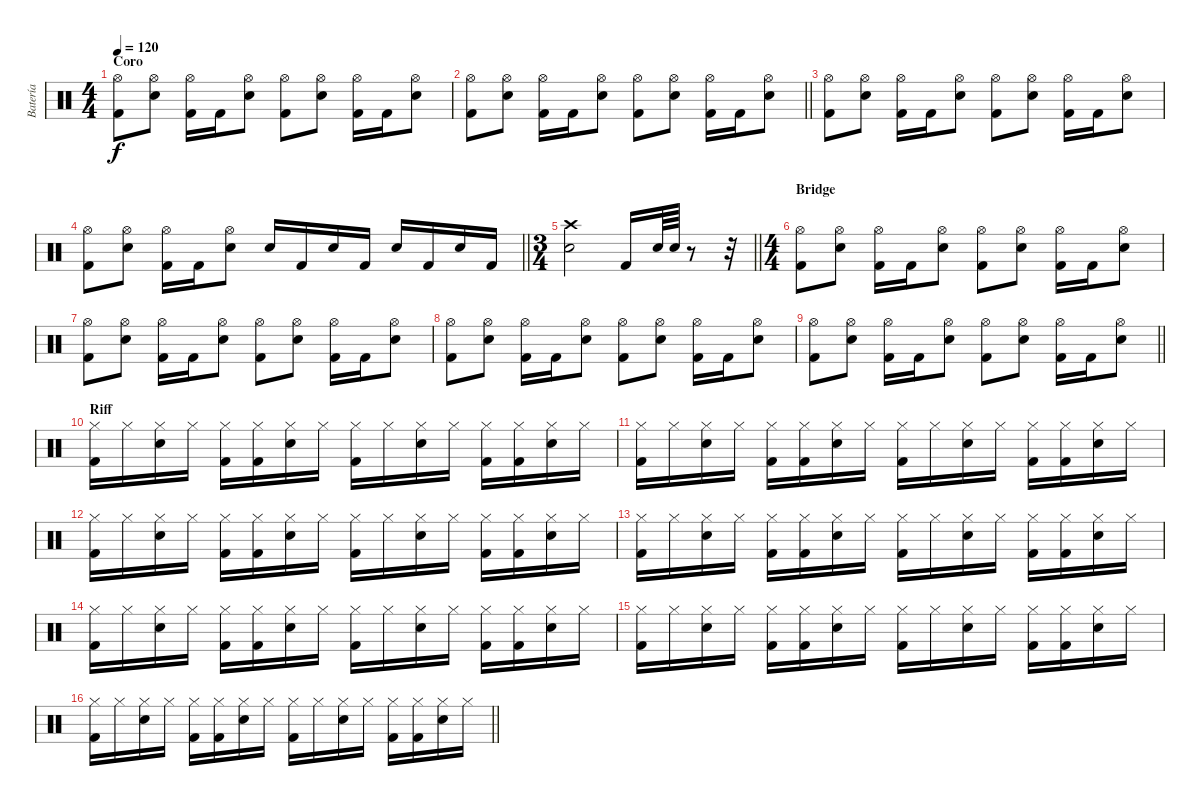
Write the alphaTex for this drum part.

\track ("Batería" "Batería") {instrument percussion}
\staff {score}
\articulation defaults
\ts (4 4)
\section ("" "Coro")
\tempo 120
\clef neutral
\ks c
("Hi-Hat (open)" "Kick (hit) 2").8{dy f} ("Hi-Hat (open)" "Snare (hit) 2").8 ("Hi-Hat (open)" "Kick (hit) 2").16 "Kick (hit) 2".16 ("Hi-Hat (open)" "Snare (hit) 2").8 ("Hi-Hat (open)" "Kick (hit) 2").8 ("Hi-Hat (open)" "Snare (hit) 2").8 ("Hi-Hat (open)" "Kick (hit) 2").16 "Kick (hit) 2".16 ("Hi-Hat (open)" "Snare (hit) 2").8 |
\barLineRight lightlight
("Hi-Hat (open)" "Kick (hit) 2").8 ("Hi-Hat (open)" "Snare (hit) 2").8 ("Hi-Hat (open)" "Kick (hit) 2").16 "Kick (hit) 2".16 ("Hi-Hat (open)" "Snare (hit) 2").8 ("Hi-Hat (open)" "Kick (hit) 2").8 ("Hi-Hat (open)" "Snare (hit) 2").8 ("Hi-Hat (open)" "Kick (hit) 2").16 "Kick (hit) 2".16 ("Hi-Hat (open)" "Snare (hit) 2").8 |
("Hi-Hat (open)" "Kick (hit) 2").8 ("Hi-Hat (open)" "Snare (hit) 2").8 ("Hi-Hat (open)" "Kick (hit) 2").16 "Kick (hit) 2".16 ("Hi-Hat (open)" "Snare (hit) 2").8 ("Hi-Hat (open)" "Kick (hit) 2").8 ("Hi-Hat (open)" "Snare (hit) 2").8 ("Hi-Hat (open)" "Kick (hit) 2").16 "Kick (hit) 2".16 ("Hi-Hat (open)" "Snare (hit) 2").8 |
\barLineRight lightlight
("Hi-Hat (open)" "Kick (hit) 2").8 ("Hi-Hat (open)" "Snare (hit) 2").8 ("Hi-Hat (open)" "Kick (hit) 2").16 "Kick (hit) 2".16 ("Hi-Hat (open)" "Snare (hit) 2").8 "Snare (hit) 2".16 "Kick (hit) 2".16 "Snare (hit) 2".16 "Kick (hit) 2".16 "Snare (hit) 2".16 "Kick (hit) 2".16 "Snare (hit) 2".16 "Kick (hit) 2".16 |
\ts (3 4)
\barLineRight lightlight
("Snare (hit) 2" "Crash high (hit)").2 "Kick (hit) 2".16 "Snare (hit) 2".64 "Snare (hit) 2".64 r.8 r.32 |
\ts (4 4)
\section ("" "Bridge")
("Hi-Hat (open)" "Kick (hit) 2").8 ("Hi-Hat (open)" "Snare (hit) 2").8 ("Hi-Hat (open)" "Kick (hit) 2").16 "Kick (hit) 2".16 ("Hi-Hat (open)" "Snare (hit) 2").8 ("Hi-Hat (open)" "Kick (hit) 2").8 ("Hi-Hat (open)" "Snare (hit) 2").8 ("Hi-Hat (open)" "Kick (hit) 2").16 "Kick (hit) 2".16 ("Hi-Hat (open)" "Snare (hit) 2").8 |
("Hi-Hat (open)" "Kick (hit) 2").8 ("Hi-Hat (open)" "Snare (hit) 2").8 ("Hi-Hat (open)" "Kick (hit) 2").16 "Kick (hit) 2".16 ("Hi-Hat (open)" "Snare (hit) 2").8 ("Hi-Hat (open)" "Kick (hit) 2").8 ("Hi-Hat (open)" "Snare (hit) 2").8 ("Hi-Hat (open)" "Kick (hit) 2").16 "Kick (hit) 2".16 ("Hi-Hat (open)" "Snare (hit) 2").8 |
("Hi-Hat (open)" "Kick (hit) 2").8 ("Hi-Hat (open)" "Snare (hit) 2").8 ("Hi-Hat (open)" "Kick (hit) 2").16 "Kick (hit) 2".16 ("Hi-Hat (open)" "Snare (hit) 2").8 ("Hi-Hat (open)" "Kick (hit) 2").8 ("Hi-Hat (open)" "Snare (hit) 2").8 ("Hi-Hat (open)" "Kick (hit) 2").16 "Kick (hit) 2".16 ("Hi-Hat (open)" "Snare (hit) 2").8 |
\barLineRight lightlight
("Hi-Hat (open)" "Kick (hit) 2").8 ("Hi-Hat (open)" "Snare (hit) 2").8 ("Hi-Hat (open)" "Kick (hit) 2").16 "Kick (hit) 2".16 ("Hi-Hat (open)" "Snare (hit) 2").8 ("Hi-Hat (open)" "Kick (hit) 2").8 ("Hi-Hat (open)" "Snare (hit) 2").8 ("Hi-Hat (open)" "Kick (hit) 2").16 "Kick (hit) 2".16 ("Hi-Hat (open)" "Snare (hit) 2").8 |
\section ("" "Riff")
("Hi-Hat (closed)" "Kick (hit) 2").16 "Hi-Hat (closed)".16 ("Hi-Hat (closed)" "Snare (hit) 2").16 "Hi-Hat (closed)".16 ("Hi-Hat (closed)" "Kick (hit) 2").16 ("Hi-Hat (closed)" "Kick (hit) 2").16 ("Hi-Hat (closed)" "Snare (hit) 2").16 "Hi-Hat (closed)".16 ("Hi-Hat (closed)" "Kick (hit) 2").16 "Hi-Hat (closed)".16 ("Hi-Hat (closed)" "Snare (hit) 2").16 "Hi-Hat (closed)".16 ("Hi-Hat (closed)" "Kick (hit) 2").16 ("Hi-Hat (closed)" "Kick (hit) 2").16 ("Hi-Hat (closed)" "Snare (hit) 2").16 "Hi-Hat (closed)".16 |
("Hi-Hat (closed)" "Kick (hit) 2").16 "Hi-Hat (closed)".16 ("Hi-Hat (closed)" "Snare (hit) 2").16 "Hi-Hat (closed)".16 ("Hi-Hat (closed)" "Kick (hit) 2").16 ("Hi-Hat (closed)" "Kick (hit) 2").16 ("Hi-Hat (closed)" "Snare (hit) 2").16 "Hi-Hat (closed)".16 ("Hi-Hat (closed)" "Kick (hit) 2").16 "Hi-Hat (closed)".16 ("Hi-Hat (closed)" "Snare (hit) 2").16 "Hi-Hat (closed)".16 ("Hi-Hat (closed)" "Kick (hit) 2").16 ("Hi-Hat (closed)" "Kick (hit) 2").16 ("Hi-Hat (closed)" "Snare (hit) 2").16 "Hi-Hat (closed)".16 |
("Hi-Hat (closed)" "Kick (hit) 2").16 "Hi-Hat (closed)".16 ("Hi-Hat (closed)" "Snare (hit) 2").16 "Hi-Hat (closed)".16 ("Hi-Hat (closed)" "Kick (hit) 2").16 ("Hi-Hat (closed)" "Kick (hit) 2").16 ("Hi-Hat (closed)" "Snare (hit) 2").16 "Hi-Hat (closed)".16 ("Hi-Hat (closed)" "Kick (hit) 2").16 "Hi-Hat (closed)".16 ("Hi-Hat (closed)" "Snare (hit) 2").16 "Hi-Hat (closed)".16 ("Hi-Hat (closed)" "Kick (hit) 2").16 ("Hi-Hat (closed)" "Kick (hit) 2").16 ("Hi-Hat (closed)" "Snare (hit) 2").16 "Hi-Hat (closed)".16 |
("Hi-Hat (closed)" "Kick (hit) 2").16 "Hi-Hat (closed)".16 ("Hi-Hat (closed)" "Snare (hit) 2").16 "Hi-Hat (closed)".16 ("Hi-Hat (closed)" "Kick (hit) 2").16 ("Hi-Hat (closed)" "Kick (hit) 2").16 ("Hi-Hat (closed)" "Snare (hit) 2").16 "Hi-Hat (closed)".16 ("Hi-Hat (closed)" "Kick (hit) 2").16 "Hi-Hat (closed)".16 ("Hi-Hat (closed)" "Snare (hit) 2").16 "Hi-Hat (closed)".16 ("Hi-Hat (closed)" "Kick (hit) 2").16 ("Hi-Hat (closed)" "Kick (hit) 2").16 ("Hi-Hat (closed)" "Snare (hit) 2").16 "Hi-Hat (closed)".16 |
("Hi-Hat (closed)" "Kick (hit) 2").16 "Hi-Hat (closed)".16 ("Hi-Hat (closed)" "Snare (hit) 2").16 "Hi-Hat (closed)".16 ("Hi-Hat (closed)" "Kick (hit) 2").16 ("Hi-Hat (closed)" "Kick (hit) 2").16 ("Hi-Hat (closed)" "Snare (hit) 2").16 "Hi-Hat (closed)".16 ("Hi-Hat (closed)" "Kick (hit) 2").16 "Hi-Hat (closed)".16 ("Hi-Hat (closed)" "Snare (hit) 2").16 "Hi-Hat (closed)".16 ("Hi-Hat (closed)" "Kick (hit) 2").16 ("Hi-Hat (closed)" "Kick (hit) 2").16 ("Hi-Hat (closed)" "Snare (hit) 2").16 "Hi-Hat (closed)".16 |
("Hi-Hat (closed)" "Kick (hit) 2").16 "Hi-Hat (closed)".16 ("Hi-Hat (closed)" "Snare (hit) 2").16 "Hi-Hat (closed)".16 ("Hi-Hat (closed)" "Kick (hit) 2").16 ("Hi-Hat (closed)" "Kick (hit) 2").16 ("Hi-Hat (closed)" "Snare (hit) 2").16 "Hi-Hat (closed)".16 ("Hi-Hat (closed)" "Kick (hit) 2").16 "Hi-Hat (closed)".16 ("Hi-Hat (closed)" "Snare (hit) 2").16 "Hi-Hat (closed)".16 ("Hi-Hat (closed)" "Kick (hit) 2").16 ("Hi-Hat (closed)" "Kick (hit) 2").16 ("Hi-Hat (closed)" "Snare (hit) 2").16 "Hi-Hat (closed)".16 |
\barLineRight lightlight
("Hi-Hat (closed)" "Kick (hit) 2").16 "Hi-Hat (closed)".16 ("Hi-Hat (closed)" "Snare (hit) 2").16 "Hi-Hat (closed)".16 ("Hi-Hat (closed)" "Kick (hit) 2").16 ("Hi-Hat (closed)" "Kick (hit) 2").16 ("Hi-Hat (closed)" "Snare (hit) 2").16 "Hi-Hat (closed)".16 ("Hi-Hat (closed)" "Kick (hit) 2").16 "Hi-Hat (closed)".16 ("Hi-Hat (closed)" "Snare (hit) 2").16 "Hi-Hat (closed)".16 ("Hi-Hat (closed)" "Kick (hit) 2").16 ("Hi-Hat (closed)" "Kick (hit) 2").16 ("Hi-Hat (closed)" "Snare (hit) 2").16 "Hi-Hat (closed)".16
